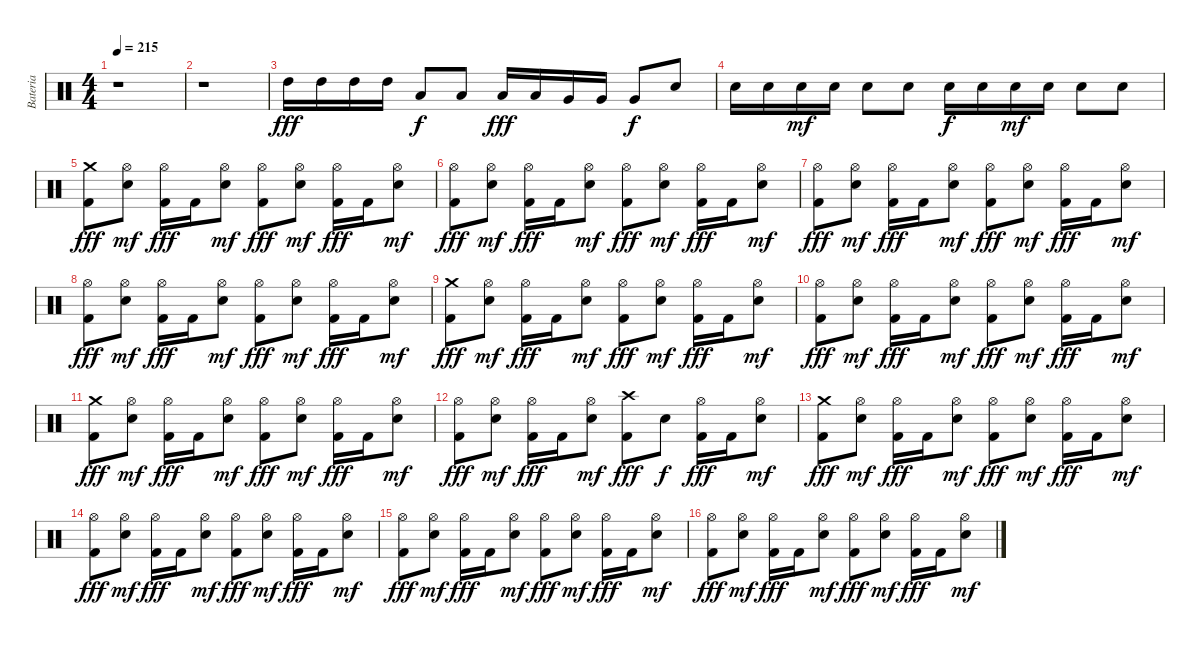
\track ("Bateria" "Bateria") {instrument percussion}
\staff {score}
\articulation defaults
\ts (4 4)
\tempo 215
\clef neutral
\ks c
r.1{dy fff} |
r.1 |
"High Tom (hit)".16 "High Tom (hit)".16 "High Tom (hit)".16 "High Tom (hit)".16 "Low Tom (hit)".8{dy f} "Low Tom (hit)".8 "Low Tom (hit)".16{dy fff} "Low Tom (hit)".16 "Very Low Tom (hit)".16 "Very Low Tom (hit)".16 "Very Low Tom (hit)".8{dy f} "Electric Snare (hit)".8 |
"Electric Snare (hit)".16 "Electric Snare (hit)".16 "Electric Snare (hit)".16{dy mf} "Electric Snare (hit)".16 "Electric Snare (hit)".8 "Electric Snare (hit)".8 "Electric Snare (hit)".16{dy f} "Electric Snare (hit)".16 "Electric Snare (hit)".16{dy mf} "Electric Snare (hit)".16 "Electric Snare (hit)".8 "Electric Snare (hit)".8 |
("Crash medium (hit)" "Kick (hit) 2").8{dy fff} ("Hi-Hat (open)" "Electric Snare (hit)").8{dy mf} ("Hi-Hat (open)" "Kick (hit) 2").16{dy fff} "Kick (hit) 2".16 ("Hi-Hat (open)" "Electric Snare (hit)").8{dy mf} ("Hi-Hat (open)" "Kick (hit) 2").8{dy fff} ("Hi-Hat (open)" "Electric Snare (hit)").8{dy mf} ("Hi-Hat (open)" "Kick (hit) 2").16{dy fff} "Kick (hit) 2".16 ("Hi-Hat (open)" "Electric Snare (hit)").8{dy mf} |
("Hi-Hat (open)" "Kick (hit) 2").8{dy fff} ("Hi-Hat (open)" "Electric Snare (hit)").8{dy mf} ("Hi-Hat (open)" "Kick (hit) 2").16{dy fff} "Kick (hit) 2".16 ("Hi-Hat (open)" "Electric Snare (hit)").8{dy mf} ("Hi-Hat (open)" "Kick (hit) 2").8{dy fff} ("Hi-Hat (open)" "Electric Snare (hit)").8{dy mf} ("Hi-Hat (open)" "Kick (hit) 2").16{dy fff} "Kick (hit) 2".16 ("Hi-Hat (open)" "Electric Snare (hit)").8{dy mf} |
("Hi-Hat (open)" "Kick (hit) 2").8{dy fff} ("Hi-Hat (open)" "Electric Snare (hit)").8{dy mf} ("Hi-Hat (open)" "Kick (hit) 2").16{dy fff} "Kick (hit) 2".16 ("Hi-Hat (open)" "Electric Snare (hit)").8{dy mf} ("Hi-Hat (open)" "Kick (hit) 2").8{dy fff} ("Hi-Hat (open)" "Electric Snare (hit)").8{dy mf} ("Hi-Hat (open)" "Kick (hit) 2").16{dy fff} "Kick (hit) 2".16 ("Hi-Hat (open)" "Electric Snare (hit)").8{dy mf} |
("Hi-Hat (open)" "Kick (hit) 2").8{dy fff} ("Hi-Hat (open)" "Electric Snare (hit)").8{dy mf} ("Hi-Hat (open)" "Kick (hit) 2").16{dy fff} "Kick (hit) 2".16 ("Hi-Hat (open)" "Electric Snare (hit)").8{dy mf} ("Hi-Hat (open)" "Kick (hit) 2").8{dy fff} ("Hi-Hat (open)" "Electric Snare (hit)").8{dy mf} ("Hi-Hat (open)" "Kick (hit) 2").16{dy fff} "Kick (hit) 2".16 ("Hi-Hat (open)" "Electric Snare (hit)").8{dy mf} |
("Crash medium (hit)" "Kick (hit) 2").8{dy fff} ("Hi-Hat (open)" "Electric Snare (hit)").8{dy mf} ("Hi-Hat (open)" "Kick (hit) 2").16{dy fff} "Kick (hit) 2".16 ("Hi-Hat (open)" "Electric Snare (hit)").8{dy mf} ("Hi-Hat (open)" "Kick (hit) 2").8{dy fff} ("Hi-Hat (open)" "Electric Snare (hit)").8{dy mf} ("Hi-Hat (open)" "Kick (hit) 2").16{dy fff} "Kick (hit) 2".16 ("Hi-Hat (open)" "Electric Snare (hit)").8{dy mf} |
("Hi-Hat (open)" "Kick (hit) 2").8{dy fff} ("Hi-Hat (open)" "Electric Snare (hit)").8{dy mf} ("Hi-Hat (open)" "Kick (hit) 2").16{dy fff} "Kick (hit) 2".16 ("Hi-Hat (open)" "Electric Snare (hit)").8{dy mf} ("Hi-Hat (open)" "Kick (hit) 2").8{dy fff} ("Hi-Hat (open)" "Electric Snare (hit)").8{dy mf} ("Hi-Hat (open)" "Kick (hit) 2").16{dy fff} "Kick (hit) 2".16 ("Hi-Hat (open)" "Electric Snare (hit)").8{dy mf} |
("Crash medium (hit)" "Kick (hit) 2").8{dy fff} ("Hi-Hat (open)" "Electric Snare (hit)").8{dy mf} ("Hi-Hat (open)" "Kick (hit) 2").16{dy fff} "Kick (hit) 2".16 ("Hi-Hat (open)" "Electric Snare (hit)").8{dy mf} ("Hi-Hat (open)" "Kick (hit) 2").8{dy fff} ("Hi-Hat (open)" "Electric Snare (hit)").8{dy mf} ("Hi-Hat (open)" "Kick (hit) 2").16{dy fff} "Kick (hit) 2".16 ("Hi-Hat (open)" "Electric Snare (hit)").8{dy mf} |
("Hi-Hat (open)" "Kick (hit) 2").8{dy fff} ("Hi-Hat (open)" "Electric Snare (hit)").8{dy mf} ("Hi-Hat (open)" "Kick (hit) 2").16{dy fff} "Kick (hit) 2".16 ("Hi-Hat (open)" "Electric Snare (hit)").8{dy mf} ("Crash high (hit)" "Kick (hit) 2").8{dy fff} "Electric Snare (hit)".8{dy f} ("Hi-Hat (open)" "Kick (hit) 2").16{dy fff} "Kick (hit) 2".16 ("Hi-Hat (open)" "Electric Snare (hit)").8{dy mf} |
("Crash medium (hit)" "Kick (hit) 2").8{dy fff} ("Hi-Hat (open)" "Electric Snare (hit)").8{dy mf} ("Hi-Hat (open)" "Kick (hit) 2").16{dy fff} "Kick (hit) 2".16 ("Hi-Hat (open)" "Electric Snare (hit)").8{dy mf} ("Hi-Hat (open)" "Kick (hit) 2").8{dy fff} ("Hi-Hat (open)" "Electric Snare (hit)").8{dy mf} ("Hi-Hat (open)" "Kick (hit) 2").16{dy fff} "Kick (hit) 2".16 ("Hi-Hat (open)" "Electric Snare (hit)").8{dy mf} |
("Hi-Hat (open)" "Kick (hit) 2").8{dy fff} ("Hi-Hat (open)" "Electric Snare (hit)").8{dy mf} ("Hi-Hat (open)" "Kick (hit) 2").16{dy fff} "Kick (hit) 2".16 ("Hi-Hat (open)" "Electric Snare (hit)").8{dy mf} ("Hi-Hat (open)" "Kick (hit) 2").8{dy fff} ("Hi-Hat (open)" "Electric Snare (hit)").8{dy mf} ("Hi-Hat (open)" "Kick (hit) 2").16{dy fff} "Kick (hit) 2".16 ("Hi-Hat (open)" "Electric Snare (hit)").8{dy mf} |
("Hi-Hat (open)" "Kick (hit) 2").8{dy fff} ("Hi-Hat (open)" "Electric Snare (hit)").8{dy mf} ("Hi-Hat (open)" "Kick (hit) 2").16{dy fff} "Kick (hit) 2".16 ("Hi-Hat (open)" "Electric Snare (hit)").8{dy mf} ("Hi-Hat (open)" "Kick (hit) 2").8{dy fff} ("Hi-Hat (open)" "Electric Snare (hit)").8{dy mf} ("Hi-Hat (open)" "Kick (hit) 2").16{dy fff} "Kick (hit) 2".16 ("Hi-Hat (open)" "Electric Snare (hit)").8{dy mf} |
("Hi-Hat (open)" "Kick (hit) 2").8{dy fff} ("Hi-Hat (open)" "Electric Snare (hit)").8{dy mf} ("Hi-Hat (open)" "Kick (hit) 2").16{dy fff} "Kick (hit) 2".16 ("Hi-Hat (open)" "Electric Snare (hit)").8{dy mf} ("Hi-Hat (open)" "Kick (hit) 2").8{dy fff} ("Hi-Hat (open)" "Electric Snare (hit)").8{dy mf} ("Hi-Hat (open)" "Kick (hit) 2").16{dy fff} "Kick (hit) 2".16 ("Hi-Hat (open)" "Electric Snare (hit)").8{dy mf}
